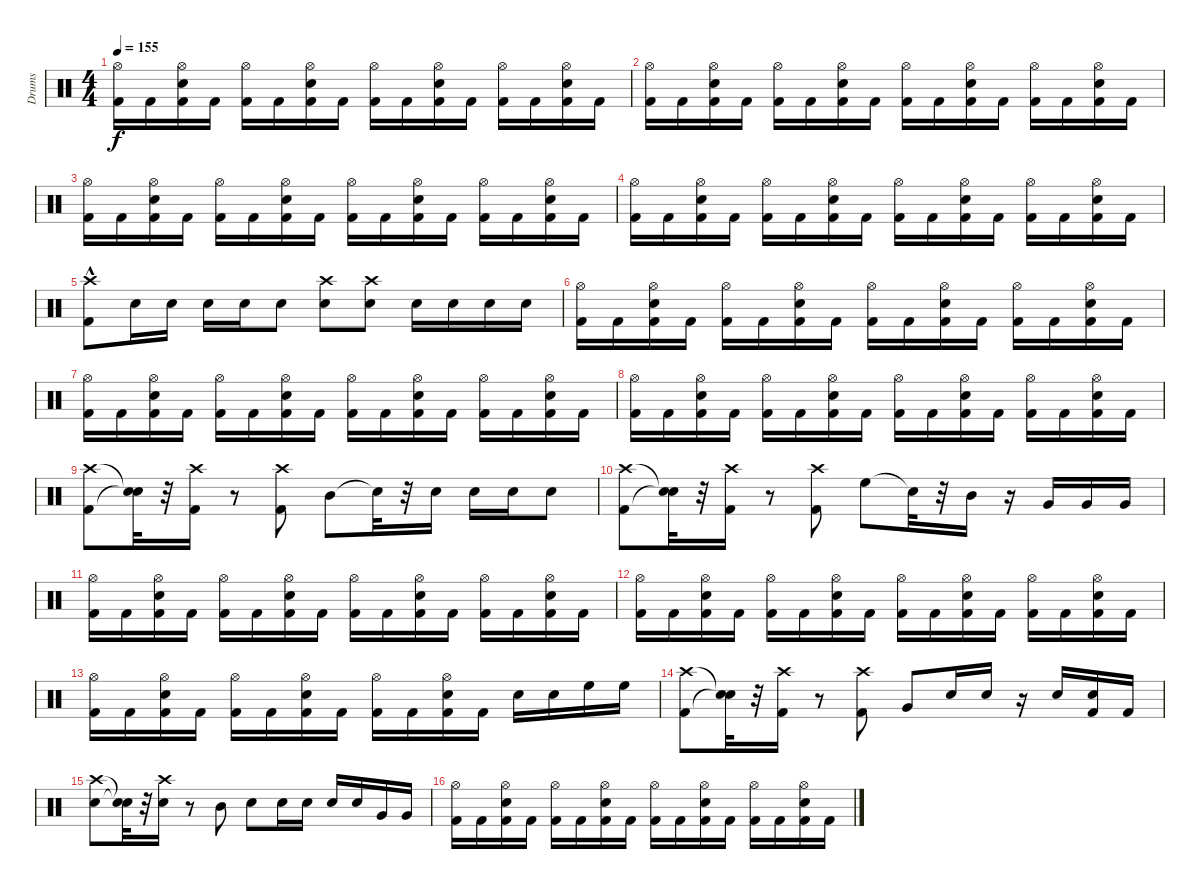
\track ("Drums" "Drums") {instrument percussion}
\staff {score}
\articulation defaults
\ts (4 4)
\tempo 155
\clef neutral
\ks c
("Kick (hit) 2" "Hi-Hat (open)").16{dy f} "Kick (hit) 2".16 ("Kick (hit) 2" "Snare (hit) 2" "Hi-Hat (open)").16 "Kick (hit) 2".16 ("Kick (hit) 2" "Hi-Hat (open)").16 "Kick (hit) 2".16 ("Kick (hit) 2" "Snare (hit) 2" "Hi-Hat (open)").16 "Kick (hit) 2".16 ("Kick (hit) 2" "Hi-Hat (open)").16 "Kick (hit) 2".16 ("Kick (hit) 2" "Snare (hit) 2" "Hi-Hat (open)").16 "Kick (hit) 2".16 ("Kick (hit) 2" "Hi-Hat (open)").16 "Kick (hit) 2".16 ("Kick (hit) 2" "Snare (hit) 2" "Hi-Hat (open)").16 "Kick (hit) 2".16 |
("Kick (hit) 2" "Hi-Hat (open)").16 "Kick (hit) 2".16 ("Kick (hit) 2" "Snare (hit) 2" "Hi-Hat (open)").16 "Kick (hit) 2".16 ("Kick (hit) 2" "Hi-Hat (open)").16 "Kick (hit) 2".16 ("Kick (hit) 2" "Snare (hit) 2" "Hi-Hat (open)").16 "Kick (hit) 2".16 ("Kick (hit) 2" "Hi-Hat (open)").16 "Kick (hit) 2".16 ("Kick (hit) 2" "Snare (hit) 2" "Hi-Hat (open)").16 "Kick (hit) 2".16 ("Kick (hit) 2" "Hi-Hat (open)").16 "Kick (hit) 2".16 ("Kick (hit) 2" "Snare (hit) 2" "Hi-Hat (open)").16 "Kick (hit) 2".16 |
("Kick (hit) 2" "Hi-Hat (open)").16 "Kick (hit) 2".16 ("Kick (hit) 2" "Snare (hit) 2" "Hi-Hat (open)").16 "Kick (hit) 2".16 ("Kick (hit) 2" "Hi-Hat (open)").16 "Kick (hit) 2".16 ("Kick (hit) 2" "Snare (hit) 2" "Hi-Hat (open)").16 "Kick (hit) 2".16 ("Kick (hit) 2" "Hi-Hat (open)").16 "Kick (hit) 2".16 ("Kick (hit) 2" "Snare (hit) 2" "Hi-Hat (open)").16 "Kick (hit) 2".16 ("Kick (hit) 2" "Hi-Hat (open)").16 "Kick (hit) 2".16 ("Kick (hit) 2" "Snare (hit) 2" "Hi-Hat (open)").16 "Kick (hit) 2".16 |
("Kick (hit) 2" "Hi-Hat (open)").16 "Kick (hit) 2".16 ("Kick (hit) 2" "Snare (hit) 2" "Hi-Hat (open)").16 "Kick (hit) 2".16 ("Kick (hit) 2" "Hi-Hat (open)").16 "Kick (hit) 2".16 ("Kick (hit) 2" "Snare (hit) 2" "Hi-Hat (open)").16 "Kick (hit) 2".16 ("Kick (hit) 2" "Hi-Hat (open)").16 "Kick (hit) 2".16 ("Kick (hit) 2" "Snare (hit) 2" "Hi-Hat (open)").16 "Kick (hit) 2".16 ("Kick (hit) 2" "Hi-Hat (open)").16 "Kick (hit) 2".16 ("Kick (hit) 2" "Snare (hit) 2" "Hi-Hat (open)").16 "Kick (hit) 2".16 |
("Kick (hit) 2"{hac} "Crash high (hit)").8 "Snare (hit) 2".16 "Snare (hit) 2".16 "Snare (hit) 2".16 "Snare (hit) 2".16 "Snare (hit) 2".8 ("Snare (hit) 2" "Crash high (hit)").8 ("Snare (hit) 2" "Crash high (hit)").8 "Snare (hit) 2".16 "Snare (hit) 2".16 "Snare (hit) 2".16 "Snare (hit) 2".16 |
("Kick (hit) 2" "Hi-Hat (open)").16 "Kick (hit) 2".16 ("Kick (hit) 2" "Snare (hit) 2" "Hi-Hat (open)").16 "Kick (hit) 2".16 ("Kick (hit) 2" "Hi-Hat (open)").16 "Kick (hit) 2".16 ("Kick (hit) 2" "Snare (hit) 2" "Hi-Hat (open)").16 "Kick (hit) 2".16 ("Kick (hit) 2" "Hi-Hat (open)").16 "Kick (hit) 2".16 ("Kick (hit) 2" "Snare (hit) 2" "Hi-Hat (open)").16 "Kick (hit) 2".16 ("Kick (hit) 2" "Hi-Hat (open)").16 "Kick (hit) 2".16 ("Kick (hit) 2" "Snare (hit) 2" "Hi-Hat (open)").16 "Kick (hit) 2".16 |
("Kick (hit) 2" "Hi-Hat (open)").16 "Kick (hit) 2".16 ("Kick (hit) 2" "Snare (hit) 2" "Hi-Hat (open)").16 "Kick (hit) 2".16 ("Kick (hit) 2" "Hi-Hat (open)").16 "Kick (hit) 2".16 ("Kick (hit) 2" "Snare (hit) 2" "Hi-Hat (open)").16 "Kick (hit) 2".16 ("Kick (hit) 2" "Hi-Hat (open)").16 "Kick (hit) 2".16 ("Kick (hit) 2" "Snare (hit) 2" "Hi-Hat (open)").16 "Kick (hit) 2".16 ("Kick (hit) 2" "Hi-Hat (open)").16 "Kick (hit) 2".16 ("Kick (hit) 2" "Snare (hit) 2" "Hi-Hat (open)").16 "Kick (hit) 2".16 |
("Kick (hit) 2" "Hi-Hat (open)").16 "Kick (hit) 2".16 ("Kick (hit) 2" "Snare (hit) 2" "Hi-Hat (open)").16 "Kick (hit) 2".16 ("Kick (hit) 2" "Hi-Hat (open)").16 "Kick (hit) 2".16 ("Kick (hit) 2" "Snare (hit) 2" "Hi-Hat (open)").16 "Kick (hit) 2".16 ("Kick (hit) 2" "Hi-Hat (open)").16 "Kick (hit) 2".16 ("Kick (hit) 2" "Snare (hit) 2" "Hi-Hat (open)").16 "Kick (hit) 2".16 ("Kick (hit) 2" "Hi-Hat (open)").16 "Kick (hit) 2".16 ("Kick (hit) 2" "Snare (hit) 2" "Hi-Hat (open)").16 "Kick (hit) 2".16 |
("Kick (hit) 2" "Crash high (hit)").8 ("Snare (hit)"{t} "Snare (hit)"{t}).32 r.32 ("Kick (hit) 2" "Crash high (hit)").16 r.8 ("Kick (hit) 2" "Crash high (hit)").8 "Mid Tom (hit)".8 "Snare (hit)"{t}.32 r.32 "Snare (hit) 2".16 "Snare (hit) 2".16 "Snare (hit) 2".16 "Snare (hit) 2".8 |
("Kick (hit) 2" "Crash high (hit)").8 ("Snare (hit)"{t} "Snare (hit)"{t}).32 r.32 ("Kick (hit) 2" "Crash high (hit)").16 r.8 ("Kick (hit) 2" "Crash high (hit)").8 "High Floor Tom (hit)".8 "Snare (hit)"{t}.32 r.32 "Mid Tom (hit)".16 r.16 "Very Low Tom (hit)".16 "Very Low Tom (hit)".16 "Very Low Tom (hit)".16 |
("Kick (hit) 2" "Hi-Hat (open)").16 "Kick (hit) 2".16 ("Kick (hit) 2" "Snare (hit) 2" "Hi-Hat (open)").16 "Kick (hit) 2".16 ("Kick (hit) 2" "Hi-Hat (open)").16 "Kick (hit) 2".16 ("Kick (hit) 2" "Snare (hit) 2" "Hi-Hat (open)").16 "Kick (hit) 2".16 ("Kick (hit) 2" "Hi-Hat (open)").16 "Kick (hit) 2".16 ("Kick (hit) 2" "Snare (hit) 2" "Hi-Hat (open)").16 "Kick (hit) 2".16 ("Kick (hit) 2" "Hi-Hat (open)").16 "Kick (hit) 2".16 ("Kick (hit) 2" "Snare (hit) 2" "Hi-Hat (open)").16 "Kick (hit) 2".16 |
("Kick (hit) 2" "Hi-Hat (open)").16 "Kick (hit) 2".16 ("Kick (hit) 2" "Snare (hit) 2" "Hi-Hat (open)").16 "Kick (hit) 2".16 ("Kick (hit) 2" "Hi-Hat (open)").16 "Kick (hit) 2".16 ("Kick (hit) 2" "Snare (hit) 2" "Hi-Hat (open)").16 "Kick (hit) 2".16 ("Kick (hit) 2" "Hi-Hat (open)").16 "Kick (hit) 2".16 ("Kick (hit) 2" "Snare (hit) 2" "Hi-Hat (open)").16 "Kick (hit) 2".16 ("Kick (hit) 2" "Hi-Hat (open)").16 "Kick (hit) 2".16 ("Kick (hit) 2" "Snare (hit) 2" "Hi-Hat (open)").16 "Kick (hit) 2".16 |
("Kick (hit) 2" "Hi-Hat (open)").16 "Kick (hit) 2".16 ("Kick (hit) 2" "Snare (hit) 2" "Hi-Hat (open)").16 "Kick (hit) 2".16 ("Kick (hit) 2" "Hi-Hat (open)").16 "Kick (hit) 2".16 ("Kick (hit) 2" "Snare (hit) 2" "Hi-Hat (open)").16 "Kick (hit) 2".16 ("Kick (hit) 2" "Hi-Hat (open)").16 "Kick (hit) 2".16 ("Kick (hit) 2" "Snare (hit) 2" "Hi-Hat (open)").16 "Kick (hit) 2".16 "Snare (hit) 2".16 "Snare (hit) 2".16 "High Floor Tom (hit)".16 "High Floor Tom (hit)".16 |
("Kick (hit) 2" "Crash high (hit)").8 ("Snare (hit)"{t} "Snare (hit)"{t}).32 r.32 ("Kick (hit) 2" "Crash high (hit)").16 r.8 ("Kick (hit) 2" "Crash high (hit)").8 "Very Low Tom (hit)".8 "Snare (hit) 2".16 "Snare (hit) 2".16 r.16 "Snare (hit) 2".16 ("Kick (hit) 2" "Snare (hit) 2").16 "Kick (hit) 2".16 |
("Snare (hit) 2" "Crash high (hit)").8 ("Snare (hit)"{t} "Snare (hit)"{t}).32 r.32 ("Snare (hit) 2" "Crash high (hit)").16 r.8 "Mid Tom (hit)".8 "Snare (hit) 2".8 "Snare (hit) 2".16 "Snare (hit) 2".16 "Snare (hit) 2".16 "Snare (hit) 2".16 "Very Low Tom (hit)".16 "Very Low Tom (hit)".16 |
("Kick (hit) 2" "Hi-Hat (open)").16 "Kick (hit) 2".16 ("Kick (hit) 2" "Snare (hit) 2" "Hi-Hat (open)").16 "Kick (hit) 2".16 ("Kick (hit) 2" "Hi-Hat (open)").16 "Kick (hit) 2".16 ("Kick (hit) 2" "Snare (hit) 2" "Hi-Hat (open)").16 "Kick (hit) 2".16 ("Kick (hit) 2" "Hi-Hat (open)").16 "Kick (hit) 2".16 ("Kick (hit) 2" "Snare (hit) 2" "Hi-Hat (open)").16 "Kick (hit) 2".16 ("Kick (hit) 2" "Hi-Hat (open)").16 "Kick (hit) 2".16 ("Kick (hit) 2" "Snare (hit) 2" "Hi-Hat (open)").16 "Kick (hit) 2".16
